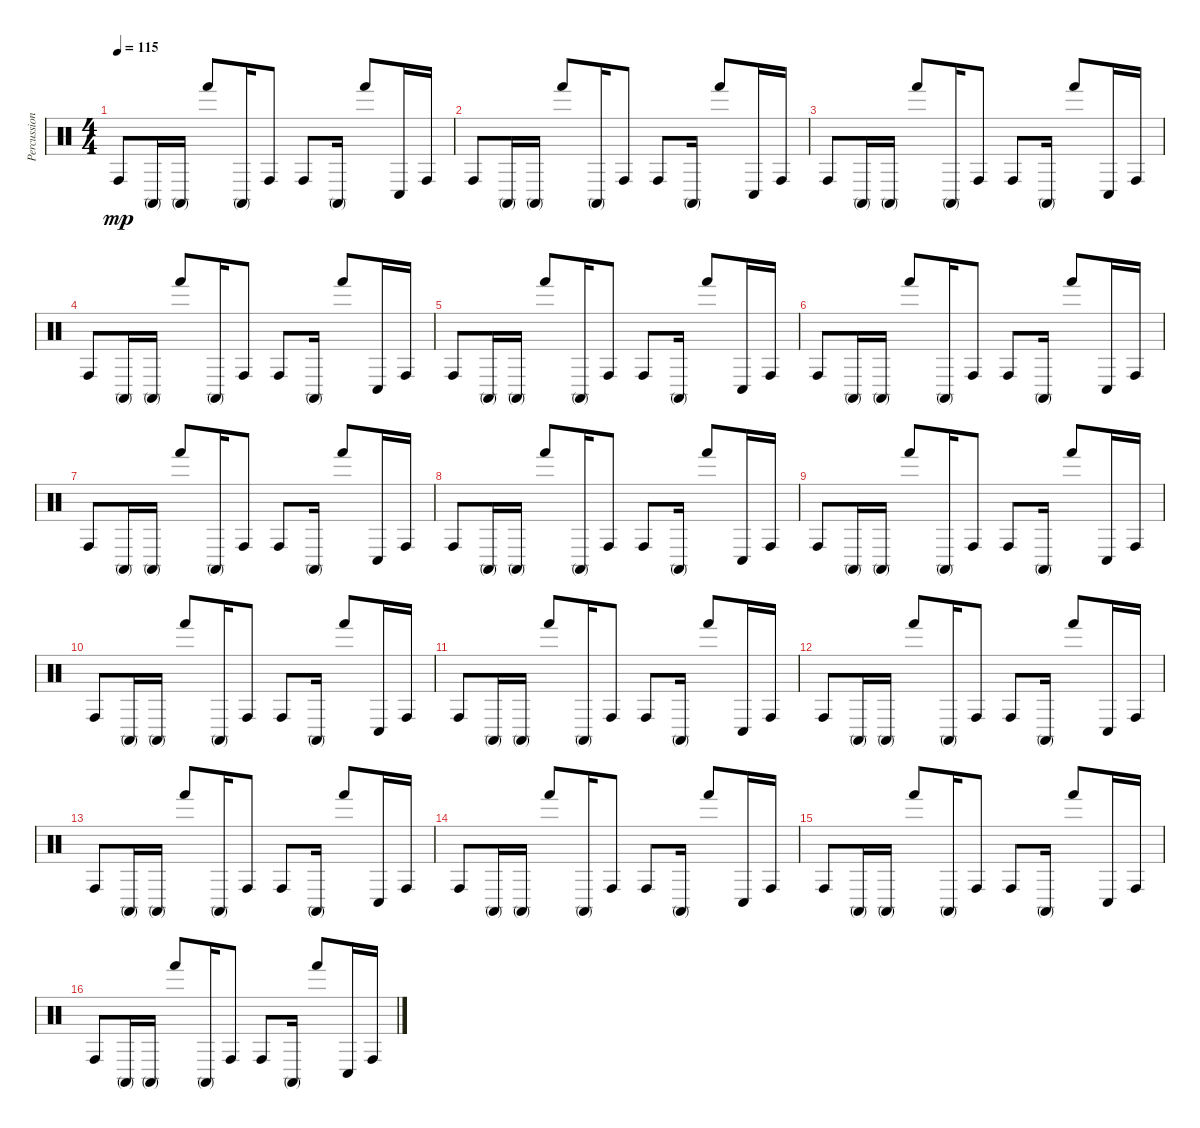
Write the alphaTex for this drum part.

\track ("Percussion" "Percussion") {instrument percussion}
\staff {score}
\articulation defaults
\ts (4 4)
\tempo 115
\clef neutral
\ks c "Conga high (hit)".8{dy mp} "Conga high (mute)".16 "Conga high (mute)".16 "Hand (hit)".8 "Conga high (mute)".16 "Conga high (hit)".8 "Conga high (hit)".8 "Conga high (mute)".16 "Hand (hit)".8 "Conga low (hit)".16 "Conga high (hit)".16
|
"Conga high (hit)".8 "Conga high (mute)".16 "Conga high (mute)".16 "Hand (hit)".8 "Conga high (mute)".16 "Conga high (hit)".8 "Conga high (hit)".8 "Conga high (mute)".16 "Hand (hit)".8 "Conga low (hit)".16 "Conga high (hit)".16 |
"Conga high (hit)".8 "Conga high (mute)".16 "Conga high (mute)".16 "Hand (hit)".8 "Conga high (mute)".16 "Conga high (hit)".8 "Conga high (hit)".8 "Conga high (mute)".16 "Hand (hit)".8 "Conga low (hit)".16 "Conga high (hit)".16 |
"Conga high (hit)".8 "Conga high (mute)".16 "Conga high (mute)".16 "Hand (hit)".8 "Conga high (mute)".16 "Conga high (hit)".8 "Conga high (hit)".8 "Conga high (mute)".16 "Hand (hit)".8 "Conga low (hit)".16 "Conga high (hit)".16 |
"Conga high (hit)".8 "Conga high (mute)".16 "Conga high (mute)".16 "Hand (hit)".8 "Conga high (mute)".16 "Conga high (hit)".8 "Conga high (hit)".8 "Conga high (mute)".16 "Hand (hit)".8 "Conga low (hit)".16 "Conga high (hit)".16 |
"Conga high (hit)".8 "Conga high (mute)".16 "Conga high (mute)".16 "Hand (hit)".8 "Conga high (mute)".16 "Conga high (hit)".8 "Conga high (hit)".8 "Conga high (mute)".16 "Hand (hit)".8 "Conga low (hit)".16 "Conga high (hit)".16 |
"Conga high (hit)".8 "Conga high (mute)".16 "Conga high (mute)".16 "Hand (hit)".8 "Conga high (mute)".16 "Conga high (hit)".8 "Conga high (hit)".8 "Conga high (mute)".16 "Hand (hit)".8 "Conga low (hit)".16 "Conga high (hit)".16 |
"Conga high (hit)".8 "Conga high (mute)".16 "Conga high (mute)".16 "Hand (hit)".8 "Conga high (mute)".16 "Conga high (hit)".8 "Conga high (hit)".8 "Conga high (mute)".16 "Hand (hit)".8 "Conga low (hit)".16 "Conga high (hit)".16 |
"Conga high (hit)".8 "Conga high (mute)".16 "Conga high (mute)".16 "Hand (hit)".8 "Conga high (mute)".16 "Conga high (hit)".8 "Conga high (hit)".8 "Conga high (mute)".16 "Hand (hit)".8 "Conga low (hit)".16 "Conga high (hit)".16 |
"Conga high (hit)".8 "Conga high (mute)".16 "Conga high (mute)".16 "Hand (hit)".8 "Conga high (mute)".16 "Conga high (hit)".8 "Conga high (hit)".8 "Conga high (mute)".16 "Hand (hit)".8 "Conga low (hit)".16 "Conga high (hit)".16 |
"Conga high (hit)".8 "Conga high (mute)".16 "Conga high (mute)".16 "Hand (hit)".8 "Conga high (mute)".16 "Conga high (hit)".8 "Conga high (hit)".8 "Conga high (mute)".16 "Hand (hit)".8 "Conga low (hit)".16 "Conga high (hit)".16 |
"Conga high (hit)".8 "Conga high (mute)".16 "Conga high (mute)".16 "Hand (hit)".8 "Conga high (mute)".16 "Conga high (hit)".8 "Conga high (hit)".8 "Conga high (mute)".16 "Hand (hit)".8 "Conga low (hit)".16 "Conga high (hit)".16 |
"Conga high (hit)".8 "Conga high (mute)".16 "Conga high (mute)".16 "Hand (hit)".8 "Conga high (mute)".16 "Conga high (hit)".8 "Conga high (hit)".8 "Conga high (mute)".16 "Hand (hit)".8 "Conga low (hit)".16 "Conga high (hit)".16 |
"Conga high (hit)".8 "Conga high (mute)".16 "Conga high (mute)".16 "Hand (hit)".8 "Conga high (mute)".16 "Conga high (hit)".8 "Conga high (hit)".8 "Conga high (mute)".16 "Hand (hit)".8 "Conga low (hit)".16 "Conga high (hit)".16 |
"Conga high (hit)".8 "Conga high (mute)".16 "Conga high (mute)".16 "Hand (hit)".8 "Conga high (mute)".16 "Conga high (hit)".8 "Conga high (hit)".8 "Conga high (mute)".16 "Hand (hit)".8 "Conga low (hit)".16 "Conga high (hit)".16 |
"Conga high (hit)".8 "Conga high (mute)".16 "Conga high (mute)".16 "Hand (hit)".8 "Conga high (mute)".16 "Conga high (hit)".8 "Conga high (hit)".8 "Conga high (mute)".16 "Hand (hit)".8 "Conga low (hit)".16 "Conga high (hit)".16
